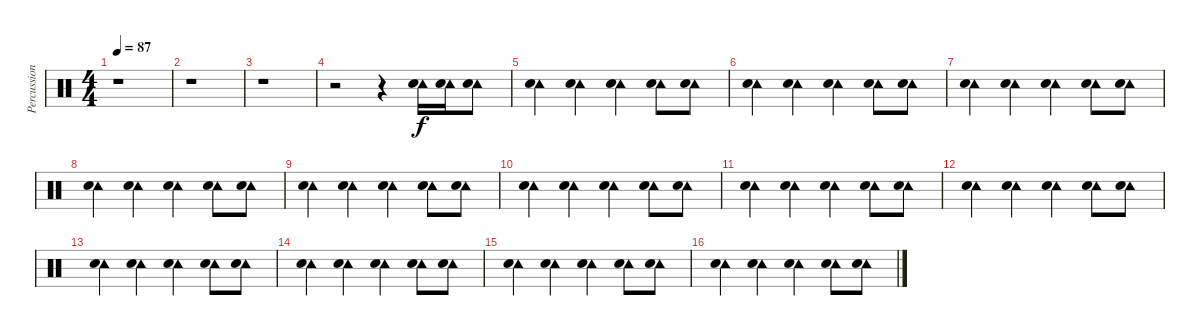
\track ("Percussion" "Percussion") {instrument percussion}
\staff {score}
\articulation defaults
\ts (4 4)
\tempo 87
\clef neutral
\ks c
r.1{dy f} |
r.1 |
r.1 |
r.2 r.4 ("Tambourine (hit)" "Snare (hit) 2").16 ("Tambourine (hit)" "Snare (hit) 2").16 ("Tambourine (hit)" "Snare (hit) 2").8 |
("Tambourine (hit)" "Snare (hit) 2").4 ("Tambourine (hit)" "Snare (hit) 2").4 ("Tambourine (hit)" "Snare (hit) 2").4 ("Tambourine (hit)" "Snare (hit) 2").8 ("Tambourine (hit)" "Snare (hit) 2").8 |
("Tambourine (hit)" "Snare (hit) 2").4 ("Tambourine (hit)" "Snare (hit) 2").4 ("Tambourine (hit)" "Snare (hit) 2").4 ("Tambourine (hit)" "Snare (hit) 2").8 ("Tambourine (hit)" "Snare (hit) 2").8 |
("Tambourine (hit)" "Snare (hit) 2").4 ("Tambourine (hit)" "Snare (hit) 2").4 ("Tambourine (hit)" "Snare (hit) 2").4 ("Tambourine (hit)" "Snare (hit) 2").8 ("Tambourine (hit)" "Snare (hit) 2").8 |
("Tambourine (hit)" "Snare (hit) 2").4 ("Tambourine (hit)" "Snare (hit) 2").4 ("Tambourine (hit)" "Snare (hit) 2").4 ("Tambourine (hit)" "Snare (hit) 2").8 ("Tambourine (hit)" "Snare (hit) 2").8 |
("Tambourine (hit)" "Snare (hit) 2").4 ("Tambourine (hit)" "Snare (hit) 2").4 ("Tambourine (hit)" "Snare (hit) 2").4 ("Tambourine (hit)" "Snare (hit) 2").8 ("Tambourine (hit)" "Snare (hit) 2").8 |
("Tambourine (hit)" "Snare (hit) 2").4 ("Tambourine (hit)" "Snare (hit) 2").4 ("Tambourine (hit)" "Snare (hit) 2").4 ("Tambourine (hit)" "Snare (hit) 2").8 ("Tambourine (hit)" "Snare (hit) 2").8 |
("Tambourine (hit)" "Snare (hit) 2").4 ("Tambourine (hit)" "Snare (hit) 2").4 ("Tambourine (hit)" "Snare (hit) 2").4 ("Tambourine (hit)" "Snare (hit) 2").8 ("Tambourine (hit)" "Snare (hit) 2").8 |
("Tambourine (hit)" "Snare (hit) 2").4 ("Tambourine (hit)" "Snare (hit) 2").4 ("Tambourine (hit)" "Snare (hit) 2").4 ("Tambourine (hit)" "Snare (hit) 2").8 ("Tambourine (hit)" "Snare (hit) 2").8 |
("Tambourine (hit)" "Snare (hit) 2").4 ("Tambourine (hit)" "Snare (hit) 2").4 ("Tambourine (hit)" "Snare (hit) 2").4 ("Tambourine (hit)" "Snare (hit) 2").8 ("Tambourine (hit)" "Snare (hit) 2").8 |
("Tambourine (hit)" "Snare (hit) 2").4 ("Tambourine (hit)" "Snare (hit) 2").4 ("Tambourine (hit)" "Snare (hit) 2").4 ("Tambourine (hit)" "Snare (hit) 2").8 ("Tambourine (hit)" "Snare (hit) 2").8 |
("Tambourine (hit)" "Snare (hit) 2").4 ("Tambourine (hit)" "Snare (hit) 2").4 ("Tambourine (hit)" "Snare (hit) 2").4 ("Tambourine (hit)" "Snare (hit) 2").8 ("Tambourine (hit)" "Snare (hit) 2").8 |
("Tambourine (hit)" "Snare (hit) 2").4 ("Tambourine (hit)" "Snare (hit) 2").4 ("Tambourine (hit)" "Snare (hit) 2").4 ("Tambourine (hit)" "Snare (hit) 2").8 ("Tambourine (hit)" "Snare (hit) 2").8
